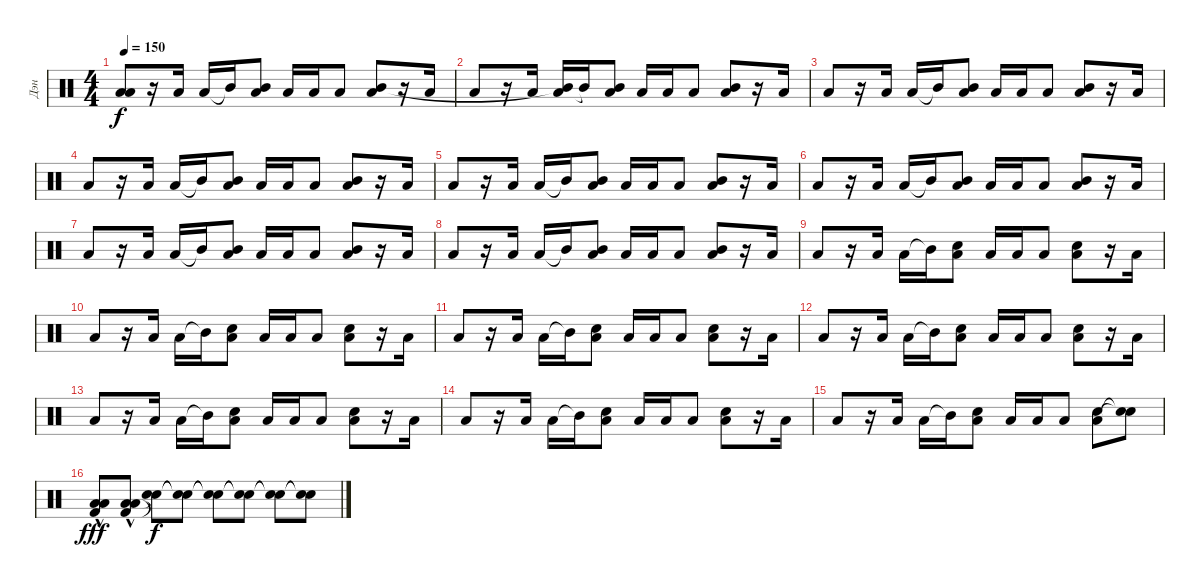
\track ("Дэн" "Дэн") {instrument percussion}
\staff {score}
\articulation defaults
\ts (4 4)
\tempo 150
\clef neutral
\ks c
("Low Tom (hit)" "Low Floor Tom (hit)").8{dy f volume 16} r.16 "Low Floor Tom (hit)".16 "Low Tom (hit)".16 "Mid Tom (hit)"{t}.16 ("Low Floor Tom (hit)" "Mid Tom (hit)").8 "Low Floor Tom (hit)".16 "Low Tom (hit)".16 "Low Floor Tom (hit)".8 ("Low Floor Tom (hit)" "Mid Tom (hit)").8 r.16 "Low Floor Tom (hit)".16 |
"Low Tom (hit)".8 r.16 "Low Floor Tom (hit)".16 ("Low Tom (hit)" "Mid Tom (hit)"{t}).16 "Mid Tom (hit)"{t}.16 ("Low Floor Tom (hit)" "Mid Tom (hit)").8 "Low Floor Tom (hit)".16 "Low Tom (hit)".16 "Low Floor Tom (hit)".8 ("Low Floor Tom (hit)" "Mid Tom (hit)").8 r.16 "Low Floor Tom (hit)".16 |
"Low Tom (hit)".8 r.16 "Low Floor Tom (hit)".16 "Low Tom (hit)".16 "Mid Tom (hit)"{t}.16 ("Low Floor Tom (hit)" "Mid Tom (hit)").8 "Low Floor Tom (hit)".16 "Low Tom (hit)".16 "Low Floor Tom (hit)".8 ("Low Floor Tom (hit)" "Mid Tom (hit)").8 r.16 "Low Floor Tom (hit)".16 |
"Low Tom (hit)".8 r.16 "Low Floor Tom (hit)".16 "Low Tom (hit)".16 "Mid Tom (hit)"{t}.16 ("Low Floor Tom (hit)" "Mid Tom (hit)").8 "Low Floor Tom (hit)".16 "Low Tom (hit)".16 "Low Floor Tom (hit)".8 ("Low Floor Tom (hit)" "Mid Tom (hit)").8 r.16 "Low Floor Tom (hit)".16 |
"Low Tom (hit)".8 r.16 "Low Floor Tom (hit)".16 "Low Tom (hit)".16 "Mid Tom (hit)"{t}.16 ("Low Floor Tom (hit)" "Mid Tom (hit)").8 "Low Floor Tom (hit)".16 "Low Tom (hit)".16 "Low Floor Tom (hit)".8 ("Low Floor Tom (hit)" "Mid Tom (hit)").8 r.16 "Low Floor Tom (hit)".16 |
"Low Tom (hit)".8 r.16 "Low Floor Tom (hit)".16 "Low Tom (hit)".16 "Mid Tom (hit)"{t}.16 ("Low Floor Tom (hit)" "Mid Tom (hit)").8 "Low Floor Tom (hit)".16 "Low Tom (hit)".16 "Low Floor Tom (hit)".8 ("Low Floor Tom (hit)" "Mid Tom (hit)").8 r.16 "Low Floor Tom (hit)".16 |
"Low Tom (hit)".8 r.16 "Low Floor Tom (hit)".16 "Low Tom (hit)".16 "Mid Tom (hit)"{t}.16 ("Low Floor Tom (hit)" "Mid Tom (hit)").8 "Low Floor Tom (hit)".16 "Low Tom (hit)".16 "Low Floor Tom (hit)".8 ("Low Floor Tom (hit)" "Mid Tom (hit)").8 r.16 "Low Floor Tom (hit)".16 |
"Low Tom (hit)".8 r.16 "Low Floor Tom (hit)".16 "Low Tom (hit)".16 "Mid Tom (hit)"{t}.16 ("Low Floor Tom (hit)" "Mid Tom (hit)").8 "Low Floor Tom (hit)".16 "Low Tom (hit)".16 "Low Floor Tom (hit)".8 ("Low Floor Tom (hit)" "Mid Tom (hit)").8 r.16 "Low Floor Tom (hit)".16 |
"Low Tom (hit)".8 r.16 "Low Floor Tom (hit)".16 "Low Tom (hit)".16 "Mid Tom (hit)"{t}.16 ("Low Floor Tom (hit)" "Snare (hit) 2").8 "Low Floor Tom (hit)".16 "Low Tom (hit)".16 "Low Floor Tom (hit)".8 ("Low Floor Tom (hit)" "Snare (hit) 2").8 r.16 "Low Floor Tom (hit)".16 |
"Low Tom (hit)".8 r.16 "Low Floor Tom (hit)".16 "Low Tom (hit)".16 "Mid Tom (hit)"{t}.16 ("Low Floor Tom (hit)" "Snare (hit) 2").8 "Low Floor Tom (hit)".16 "Low Tom (hit)".16 "Low Floor Tom (hit)".8 ("Low Floor Tom (hit)" "Snare (hit) 2").8 r.16 "Low Floor Tom (hit)".16 |
"Low Tom (hit)".8 r.16 "Low Floor Tom (hit)".16 "Low Tom (hit)".16 "Mid Tom (hit)"{t}.16 ("Low Floor Tom (hit)" "Snare (hit) 2").8 "Low Floor Tom (hit)".16 "Low Tom (hit)".16 "Low Floor Tom (hit)".8 ("Low Floor Tom (hit)" "Snare (hit) 2").8 r.16 "Low Floor Tom (hit)".16 |
"Low Tom (hit)".8 r.16 "Low Floor Tom (hit)".16 "Low Tom (hit)".16 "Mid Tom (hit)"{t}.16 ("Low Floor Tom (hit)" "Snare (hit) 2").8 "Low Floor Tom (hit)".16 "Low Tom (hit)".16 "Low Floor Tom (hit)".8 ("Low Floor Tom (hit)" "Snare (hit) 2").8 r.16 "Low Floor Tom (hit)".16 |
"Low Tom (hit)".8 r.16 "Low Floor Tom (hit)".16 "Low Tom (hit)".16 "Mid Tom (hit)"{t}.16 ("Low Floor Tom (hit)" "Snare (hit) 2").8 "Low Floor Tom (hit)".16 "Low Tom (hit)".16 "Low Floor Tom (hit)".8 ("Low Floor Tom (hit)" "Snare (hit) 2").8 r.16 "Low Floor Tom (hit)".16 |
"Low Tom (hit)".8 r.16 "Low Floor Tom (hit)".16 "Low Tom (hit)".16 "Mid Tom (hit)"{t}.16 ("Low Floor Tom (hit)" "Snare (hit) 2").8 "Low Floor Tom (hit)".16 "Low Tom (hit)".16 "Low Floor Tom (hit)".8 ("Low Floor Tom (hit)" "Snare (hit) 2").8 r.16 "Low Floor Tom (hit)".16 |
"Low Tom (hit)".8 r.16 "Low Floor Tom (hit)".16 "Low Tom (hit)".16 "Mid Tom (hit)"{t}.16 ("Low Floor Tom (hit)" "Snare (hit) 2").8 "Low Floor Tom (hit)".16 "Low Tom (hit)".16 "Low Floor Tom (hit)".8 ("Low Floor Tom (hit)" "Snare (hit) 2").8 ("Snare (hit)"{t} "Snare (hit)"{t}).8 |
("Low Tom (hit)"{hac} "Kick (hit) 2"{hac} "Low Floor Tom (hit)"{hac}).8{dy fff} ("Low Tom (hit)"{hac} "Kick (hit) 2"{hac} "Low Floor Tom (hit)"{hac}).8 ("Snare (hit)"{t} "Snare (hit)"{t}).8{dy f} ("Snare (hit)"{t} "Snare (hit)"{t}).8 ("Snare (hit)"{t} "Snare (hit)"{t}).8 ("Snare (hit)"{t} "Snare (hit)"{t}).8 ("Snare (hit)"{t} "Snare (hit)"{t}).8 ("Snare (hit)"{t} "Snare (hit)"{t}).8
